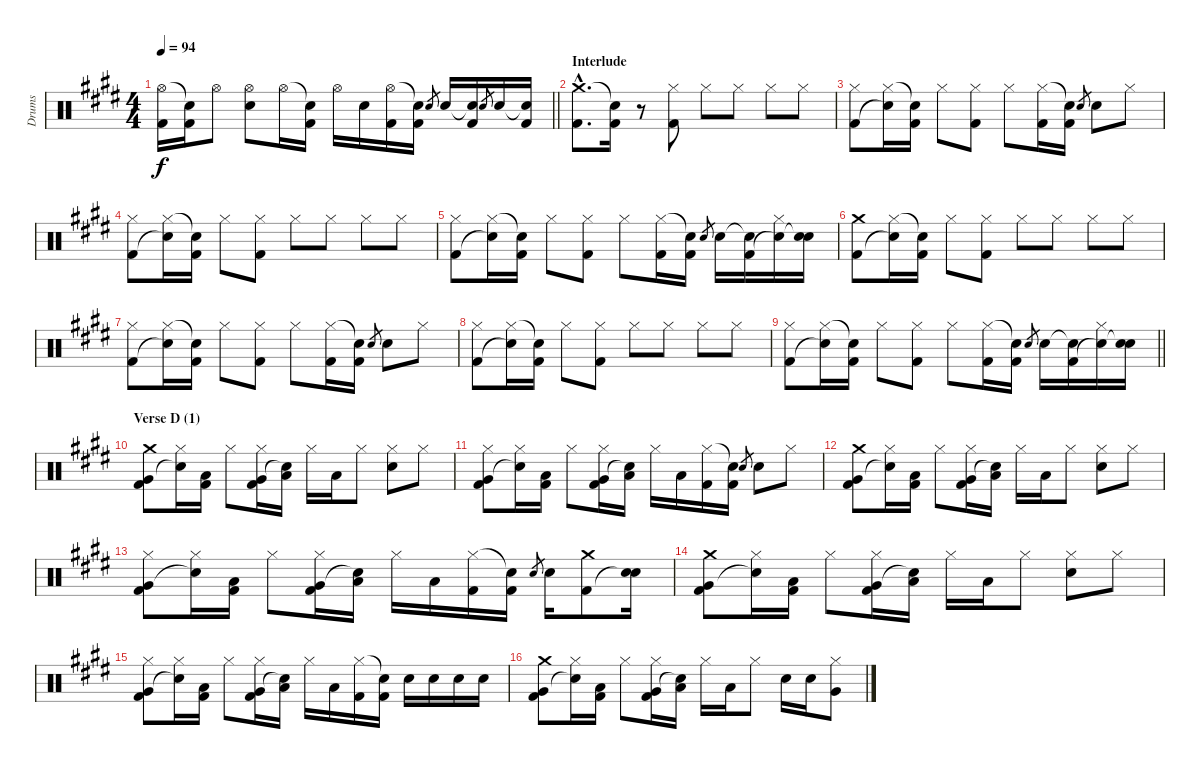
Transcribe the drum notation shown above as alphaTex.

\track ("Drums" "Drums") {instrument percussion}
\staff {score}
\articulation defaults
\ts (4 4)
\tempo 94
\clef neutral
\barLineRight lightlight
\ks c#minor
("Hi-Hat (open)" "Kick (hit) 2").16{dy f} ("Snare (hit)"{t} "Kick (hit) 2").16 "Hi-Hat (open)".8 ("Hi-Hat (open)" "Electric Snare (hit)").8 "Hi-Hat (open)".16 ("Snare (hit)"{t} "Kick (hit) 2").16 "Hi-Hat (open)".16 "Electric Snare (hit)".16 ("Hi-Hat (open)" "Kick (hit) 2").16 ("Snare (hit)"{t} "Kick (hit) 2").16 "Electric Snare (hit)".8{gr} "Electric Snare (hit)".16 ("Snare (hit)"{t} "Kick (hit) 2").16 "Electric Snare (hit)".8{gr} "Electric Snare (hit)".16 ("Snare (hit)"{t} "Kick (hit) 2").16 |
\section ("" "Interlude")
("Crash medium (hit)"{hac} "Kick (hit) 2"{hac}).8{d} ("Snare (hit)"{t} "Kick (hit) 2").16 r.8 ("Hi-Hat (closed)" "Kick (hit) 2").8 "Hi-Hat (closed)".8 "Hi-Hat (closed)".8 "Hi-Hat (closed)".8 "Hi-Hat (closed)".8 |
("Hi-Hat (closed)" "Kick (hit) 2").8 ("Hi-Hat (closed)" "Snare (hit)"{t}).16 ("Snare (hit)"{t} "Kick (hit) 2").16 "Hi-Hat (closed)".8 ("Hi-Hat (closed)" "Kick (hit) 2").8 "Hi-Hat (closed)".8 ("Hi-Hat (closed)" "Kick (hit) 2").16 ("Snare (hit)"{t} "Kick (hit) 2").16 "Electric Snare (hit)".8{gr} "Electric Snare (hit)".8 "Hi-Hat (closed)".8 |
("Hi-Hat (closed)" "Kick (hit) 2").8 ("Hi-Hat (closed)" "Snare (hit)"{t}).16 ("Snare (hit)"{t} "Kick (hit) 2").16 "Hi-Hat (closed)".8 ("Hi-Hat (closed)" "Kick (hit) 2").8 "Hi-Hat (closed)".8 "Hi-Hat (closed)".8 "Hi-Hat (closed)".8 "Hi-Hat (closed)".8 |
("Hi-Hat (closed)" "Kick (hit) 2").8 ("Hi-Hat (closed)" "Snare (hit)"{t}).16 ("Snare (hit)"{t} "Kick (hit) 2").16 "Hi-Hat (closed)".8 ("Hi-Hat (closed)" "Kick (hit) 2").8 "Hi-Hat (closed)".8 ("Hi-Hat (closed)" "Kick (hit) 2").16 ("Snare (hit)"{t} "Kick (hit) 2").16 "Electric Snare (hit)".8{gr} "Electric Snare (hit)".16 ("Snare (hit)"{t} "Kick (hit) 2").16 ("Hi-Hat (closed)" "Snare (hit)"{t}).16 ("Electric Snare (hit)" "Snare (hit)"{t}).16 |
("Crash medium (hit)" "Kick (hit) 2").8 ("Hi-Hat (closed)" "Snare (hit)"{t}).16 ("Snare (hit)"{t} "Kick (hit) 2").16 "Hi-Hat (closed)".8 ("Hi-Hat (closed)" "Kick (hit) 2").8 "Hi-Hat (closed)".8 "Hi-Hat (closed)".8 "Hi-Hat (closed)".8 "Hi-Hat (closed)".8 |
("Hi-Hat (closed)" "Kick (hit) 2").8 ("Hi-Hat (closed)" "Snare (hit)"{t}).16 ("Snare (hit)"{t} "Kick (hit) 2").16 "Hi-Hat (closed)".8 ("Hi-Hat (closed)" "Kick (hit) 2").8 "Hi-Hat (closed)".8 ("Hi-Hat (closed)" "Kick (hit) 2").16 ("Snare (hit)"{t} "Kick (hit) 2").16 "Electric Snare (hit)".8{gr} "Electric Snare (hit)".8 "Hi-Hat (closed)".8 |
("Hi-Hat (closed)" "Kick (hit) 2").8 ("Hi-Hat (closed)" "Snare (hit)"{t}).16 ("Snare (hit)"{t} "Kick (hit) 2").16 "Hi-Hat (closed)".8 ("Hi-Hat (closed)" "Kick (hit) 2").8 "Hi-Hat (closed)".8 "Hi-Hat (closed)".8 "Hi-Hat (closed)".8 "Hi-Hat (closed)".8 |
\barLineRight lightlight
("Hi-Hat (closed)" "Kick (hit) 2").8 ("Hi-Hat (closed)" "Snare (hit)"{t}).16 ("Snare (hit)"{t} "Kick (hit) 2").16 "Hi-Hat (closed)".8 ("Hi-Hat (closed)" "Kick (hit) 2").8 "Hi-Hat (closed)".8 ("Hi-Hat (closed)" "Kick (hit) 2").16 ("Snare (hit)"{t} "Kick (hit) 2").16 "Electric Snare (hit)".8{gr} "Electric Snare (hit)".16 ("Snare (hit)"{t} "Kick (hit) 2").16 ("Hi-Hat (closed)" "Snare (hit)"{t}).16 ("Electric Snare (hit)" "Snare (hit)"{t}).16 |
\section ("" "Verse D (1)")
("Crash medium (hit)" "Very Low Tom (hit)" "Kick (hit) 2").8 ("Hi-Hat (closed)" "Snare (hit)"{t}).16 ("Low Floor Tom (hit)" "Kick (hit) 2").16 "Hi-Hat (closed)".8 ("Hi-Hat (closed)" "Very Low Tom (hit)" "Kick (hit) 2").16 ("Low Floor Tom (hit)" "Snare (hit)"{t}).16 "Hi-Hat (closed)".16 "Low Floor Tom (hit)".16 "Hi-Hat (closed)".8 ("Hi-Hat (closed)" "Electric Snare (hit)").8 "Hi-Hat (closed)".8 |
("Hi-Hat (closed)" "Very Low Tom (hit)" "Kick (hit) 2").8 ("Hi-Hat (closed)" "Snare (hit)"{t}).16 ("Low Floor Tom (hit)" "Kick (hit) 2").16 "Hi-Hat (closed)".8 ("Hi-Hat (closed)" "Very Low Tom (hit)" "Kick (hit) 2").16 ("Low Floor Tom (hit)" "Snare (hit)"{t}).16 "Hi-Hat (closed)".16 "Low Floor Tom (hit)".16 ("Hi-Hat (closed)" "Kick (hit) 2").16 ("Snare (hit)"{t} "Kick (hit) 2").16 "Electric Snare (hit)".8{gr} "Electric Snare (hit)".8 "Hi-Hat (closed)".8 |
("Crash medium (hit)" "Very Low Tom (hit)" "Kick (hit) 2").8 ("Hi-Hat (closed)" "Snare (hit)"{t}).16 ("Low Floor Tom (hit)" "Kick (hit) 2").16 "Hi-Hat (closed)".8 ("Hi-Hat (closed)" "Very Low Tom (hit)" "Kick (hit) 2").16 ("Low Floor Tom (hit)" "Snare (hit)"{t}).16 "Hi-Hat (closed)".16 "Low Floor Tom (hit)".16 "Hi-Hat (closed)".8 ("Hi-Hat (closed)" "Electric Snare (hit)").8 "Hi-Hat (closed)".8 |
("Hi-Hat (closed)" "Very Low Tom (hit)" "Kick (hit) 2").8 ("Hi-Hat (closed)" "Snare (hit)"{t}).16 ("Low Floor Tom (hit)" "Kick (hit) 2").16 "Hi-Hat (closed)".8 ("Hi-Hat (closed)" "Very Low Tom (hit)" "Kick (hit) 2").16 ("Low Floor Tom (hit)" "Snare (hit)"{t}).16 "Hi-Hat (closed)".16 "Low Floor Tom (hit)".16 ("Hi-Hat (closed)" "Kick (hit) 2").16 ("Snare (hit)"{t} "Kick (hit) 2").16 "Electric Snare (hit)".8{gr} "Electric Snare (hit)".16 ("Crash medium (hit)" "Kick (hit) 2").8 ("Electric Snare (hit)" "Snare (hit)"{t}).16 |
("Crash medium (hit)" "Very Low Tom (hit)" "Kick (hit) 2").8 ("Hi-Hat (closed)" "Snare (hit)"{t}).16 ("Low Floor Tom (hit)" "Kick (hit) 2").16 "Hi-Hat (closed)".8 ("Hi-Hat (closed)" "Very Low Tom (hit)" "Kick (hit) 2").16 ("Low Floor Tom (hit)" "Snare (hit)"{t}).16 "Hi-Hat (closed)".16 "Low Floor Tom (hit)".16 "Hi-Hat (closed)".8 ("Hi-Hat (closed)" "Electric Snare (hit)").8 "Hi-Hat (closed)".8 |
("Hi-Hat (closed)" "Very Low Tom (hit)" "Kick (hit) 2").8 ("Hi-Hat (closed)" "Snare (hit)"{t}).16 ("Low Floor Tom (hit)" "Kick (hit) 2").16 "Hi-Hat (closed)".8 ("Hi-Hat (closed)" "Very Low Tom (hit)" "Kick (hit) 2").16 ("Low Floor Tom (hit)" "Snare (hit)"{t}).16 "Hi-Hat (closed)".16 "Low Floor Tom (hit)".16 ("Hi-Hat (closed)" "Kick (hit) 2").16 ("Snare (hit)"{t} "Kick (hit) 2").16 "Electric Snare (hit)".16 "Electric Snare (hit)".16 "Electric Snare (hit)".16 "Electric Snare (hit)".16 |
("Crash medium (hit)" "Very Low Tom (hit)" "Kick (hit) 2").8 ("Hi-Hat (closed)" "Snare (hit)"{t}).16 ("Low Floor Tom (hit)" "Kick (hit) 2").16 "Hi-Hat (closed)".8 ("Hi-Hat (closed)" "Very Low Tom (hit)" "Kick (hit) 2").16 ("Low Floor Tom (hit)" "Snare (hit)"{t}).16 "Hi-Hat (closed)".16 "Low Floor Tom (hit)".16 "Hi-Hat (closed)".8 "Electric Snare (hit)".16 "Electric Snare (hit)".16 ("Hi-Hat (closed)" "Very Low Tom (hit)").8
